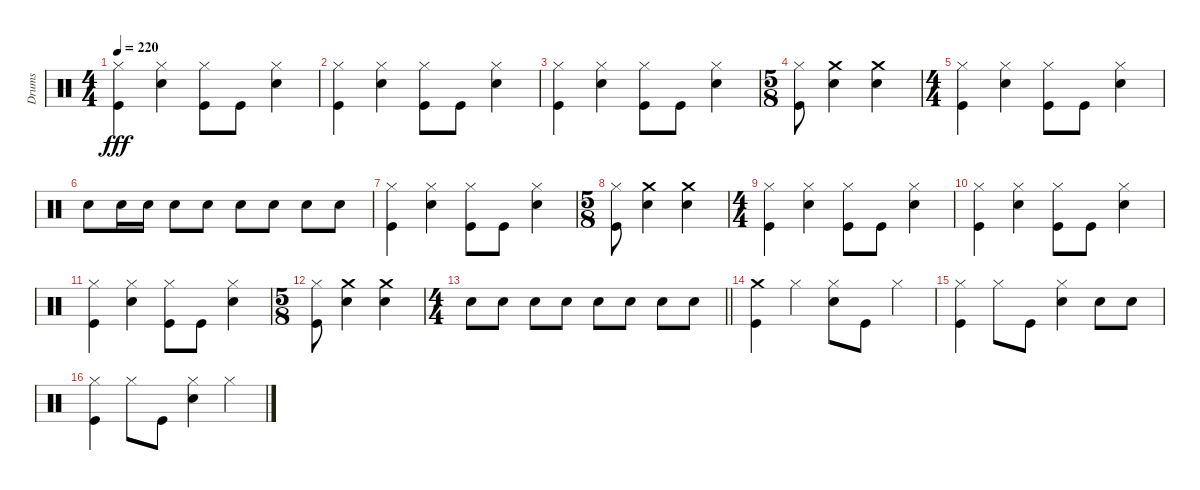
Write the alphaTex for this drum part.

\track ("Drums" "Drums") {instrument percussion}
\staff {score}
\articulation defaults
\ts (4 4)
\tempo 220
\clef neutral
\ks c
("Kick (hit)" "Hi-Hat (closed)").4{dy fff} ("Snare (hit) 2" "Hi-Hat (closed)").4 ("Kick (hit)" "Hi-Hat (closed)").8 "Kick (hit)".8 ("Snare (hit) 2" "Hi-Hat (closed)").4 |
("Hi-Hat (closed)" "Kick (hit)").4 ("Snare (hit) 2" "Hi-Hat (closed)").4 ("Hi-Hat (closed)" "Kick (hit)").8 "Kick (hit)".8 ("Snare (hit) 2" "Hi-Hat (closed)").4 |
("Hi-Hat (closed)" "Kick (hit)").4 ("Snare (hit) 2" "Hi-Hat (closed)").4 ("Kick (hit)" "Hi-Hat (closed)").8 "Kick (hit)".8 ("Hi-Hat (closed)" "Snare (hit) 2").4 |
\ts (5 8)
("Hi-Hat (closed)" "Kick (hit)").8 ("Snare (hit) 2" "Crash medium (hit)").4 ("Snare (hit) 2" "Crash medium (hit)").4 |
\ts (4 4)
("Hi-Hat (closed)" "Kick (hit)").4 ("Snare (hit) 2" "Hi-Hat (closed)").4 ("Kick (hit)" "Hi-Hat (closed)").8 "Kick (hit)".8 ("Snare (hit) 2" "Hi-Hat (closed)").4 |
"Snare (hit) 2".8 "Snare (hit) 2".16 "Snare (hit) 2".16 "Snare (hit) 2".8 "Snare (hit) 2".8 "Snare (hit) 2".8 "Snare (hit) 2".8 "Snare (hit) 2".8 "Snare (hit) 2".8 |
("Kick (hit)" "Hi-Hat (closed)").4 ("Hi-Hat (closed)" "Snare (hit) 2").4 ("Kick (hit)" "Hi-Hat (closed)").8 "Kick (hit)".8 ("Snare (hit) 2" "Hi-Hat (closed)").4 |
\ts (5 8)
("Hi-Hat (closed)" "Kick (hit)").8 ("Snare (hit) 2" "Crash medium (hit)").4 ("Snare (hit) 2" "Crash medium (hit)").4 |
\ts (4 4)
("Kick (hit)" "Hi-Hat (closed)").4 ("Snare (hit) 2" "Hi-Hat (closed)").4 ("Kick (hit)" "Hi-Hat (closed)").8 "Kick (hit)".8 ("Snare (hit) 2" "Hi-Hat (closed)").4 |
("Hi-Hat (closed)" "Kick (hit)").4 ("Snare (hit) 2" "Hi-Hat (closed)").4 ("Hi-Hat (closed)" "Kick (hit)").8 "Kick (hit)".8 ("Snare (hit) 2" "Hi-Hat (closed)").4 |
("Hi-Hat (closed)" "Kick (hit)").4 ("Snare (hit) 2" "Hi-Hat (closed)").4 ("Kick (hit)" "Hi-Hat (closed)").8 "Kick (hit)".8 ("Hi-Hat (closed)" "Snare (hit) 2").4 |
\ts (5 8)
("Hi-Hat (closed)" "Kick (hit)").8 ("Snare (hit) 2" "Crash medium (hit)").4 ("Snare (hit) 2" "Crash medium (hit)").4 |
\ts (4 4)
\barLineRight lightlight "Snare (hit) 2".8 "Snare (hit) 2".8 "Snare (hit) 2".8 "Snare (hit) 2".8 "Snare (hit) 2".8 "Snare (hit) 2".8 "Snare (hit) 2".8 "Snare (hit) 2".8
|
("Kick (hit)" "Crash medium (hit)").4 "Hi-Hat (closed)".4 ("Snare (hit) 2" "Hi-Hat (closed)").8 "Kick (hit)".8 "Hi-Hat (closed)".4 |
("Kick (hit)" "Hi-Hat (closed)").4 "Hi-Hat (closed)".8 "Kick (hit)".8 ("Hi-Hat (closed)" "Snare (hit) 2").4 "Snare (hit) 2".8 "Snare (hit) 2".8 |
("Hi-Hat (closed)" "Kick (hit)").4 "Hi-Hat (closed)".8 "Kick (hit)".8 ("Snare (hit) 2" "Hi-Hat (closed)").4 "Hi-Hat (closed)".4
